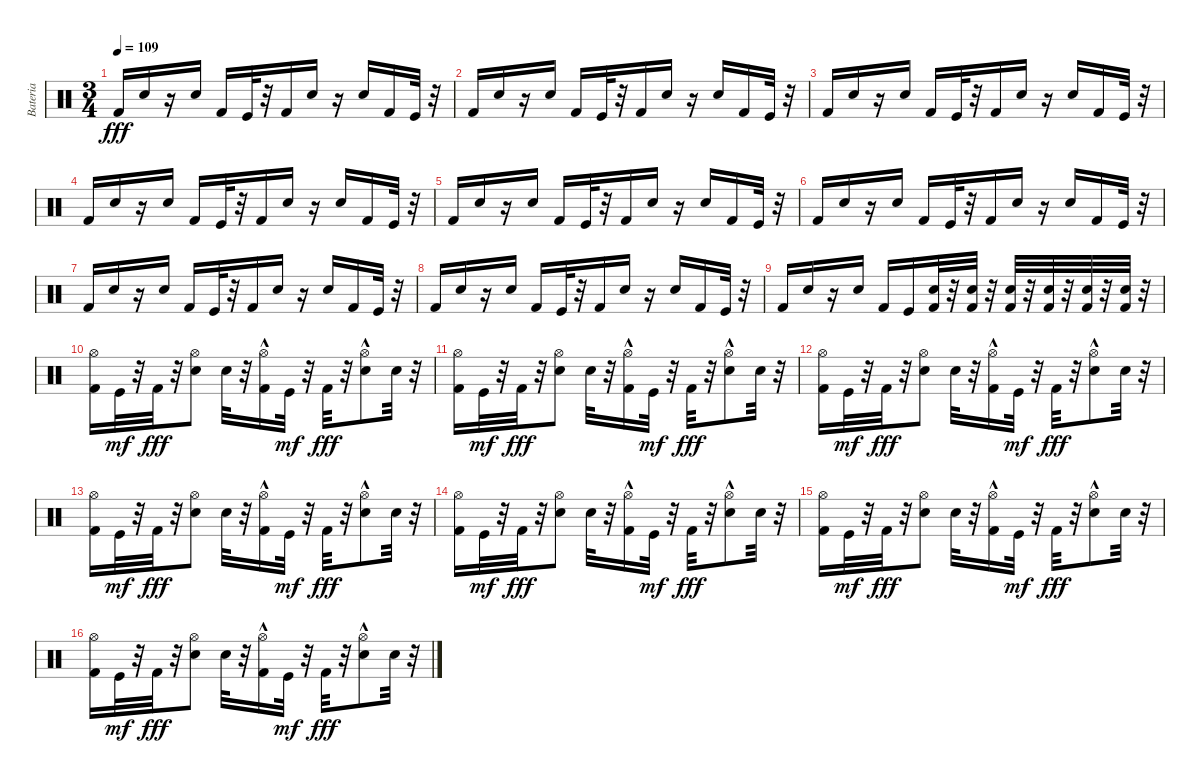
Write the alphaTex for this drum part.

\track ("Bateria" "Bateria") {instrument percussion}
\staff {score}
\articulation defaults
\ts (3 4)
\tempo 109
\clef neutral
\ks c "Kick (hit) 2".16{dy fff} "Electric Snare (hit)".16
r.16 "Electric Snare (hit)".16 "Kick (hit) 2".16 "Kick (hit)".32 r.32 "Kick (hit) 2".16 "Electric Snare (hit)".16 r.16 "Electric Snare (hit)".16 "Kick (hit) 2".16 "Kick (hit)".32 r.32 |
"Kick (hit) 2".16 "Electric Snare (hit)".16 r.16 "Electric Snare (hit)".16 "Kick (hit) 2".16 "Kick (hit)".32 r.32 "Kick (hit) 2".16 "Electric Snare (hit)".16 r.16 "Electric Snare (hit)".16 "Kick (hit) 2".16 "Kick (hit)".32 r.32 |
"Kick (hit) 2".16 "Electric Snare (hit)".16 r.16 "Electric Snare (hit)".16 "Kick (hit) 2".16 "Kick (hit)".32 r.32 "Kick (hit) 2".16 "Electric Snare (hit)".16 r.16 "Electric Snare (hit)".16 "Kick (hit) 2".16 "Kick (hit)".32 r.32 |
"Kick (hit) 2".16 "Electric Snare (hit)".16 r.16 "Electric Snare (hit)".16 "Kick (hit) 2".16 "Kick (hit)".32 r.32 "Kick (hit) 2".16 "Electric Snare (hit)".16 r.16 "Electric Snare (hit)".16 "Kick (hit) 2".16 "Kick (hit)".32 r.32 |
"Kick (hit) 2".16 "Electric Snare (hit)".16 r.16 "Electric Snare (hit)".16 "Kick (hit) 2".16 "Kick (hit)".32 r.32 "Kick (hit) 2".16 "Electric Snare (hit)".16 r.16 "Electric Snare (hit)".16 "Kick (hit) 2".16 "Kick (hit)".32 r.32 |
"Kick (hit) 2".16 "Electric Snare (hit)".16 r.16 "Electric Snare (hit)".16 "Kick (hit) 2".16 "Kick (hit)".32 r.32 "Kick (hit) 2".16 "Electric Snare (hit)".16 r.16 "Electric Snare (hit)".16 "Kick (hit) 2".16 "Kick (hit)".32 r.32 |
"Kick (hit) 2".16 "Electric Snare (hit)".16 r.16 "Electric Snare (hit)".16 "Kick (hit) 2".16 "Kick (hit)".32 r.32 "Kick (hit) 2".16 "Electric Snare (hit)".16 r.16 "Electric Snare (hit)".16 "Kick (hit) 2".16 "Kick (hit)".32 r.32 |
"Kick (hit) 2".16 "Electric Snare (hit)".16 r.16 "Electric Snare (hit)".16 "Kick (hit) 2".16 "Kick (hit)".32 r.32 "Kick (hit) 2".16 "Electric Snare (hit)".16 r.16 "Electric Snare (hit)".16 "Kick (hit) 2".16 "Kick (hit)".32 r.32 |
"Kick (hit) 2".16 "Electric Snare (hit)".16 r.16 "Electric Snare (hit)".16 "Kick (hit) 2".16 "Kick (hit)".16 ("Electric Snare (hit)" "Kick (hit) 2").32 r.32 ("Kick (hit) 2" "Electric Snare (hit)").32 r.32 ("Kick (hit) 2" "Electric Snare (hit)").32 r.32 ("Kick (hit) 2" "Electric Snare (hit)").32 r.32 ("Kick (hit) 2" "Electric Snare (hit)").32 r.32 ("Kick (hit) 2" "Electric Snare (hit)").32 r.32 |
("Kick (hit) 2" "Hi-Hat (open)").16 "Kick (hit)".32{dy mf} r.32 "Kick (hit) 2".32{dy fff} r.32 ("Electric Snare (hit)" "Hi-Hat (open)").8 "Electric Snare (hit)".32 r.32 ("Kick (hit) 2" "Hi-Hat (open)"{hac}).16 "Kick (hit)".32{dy mf} r.32 "Kick (hit) 2".32{dy fff} r.32 ("Electric Snare (hit)" "Hi-Hat (open)"{hac}).8 "Electric Snare (hit)".32 r.32 |
("Kick (hit) 2" "Hi-Hat (open)").16 "Kick (hit)".32{dy mf} r.32 "Kick (hit) 2".32{dy fff} r.32 ("Electric Snare (hit)" "Hi-Hat (open)").8 "Electric Snare (hit)".32 r.32 ("Kick (hit) 2" "Hi-Hat (open)"{hac}).16 "Kick (hit)".32{dy mf} r.32 "Kick (hit) 2".32{dy fff} r.32 ("Electric Snare (hit)" "Hi-Hat (open)"{hac}).8 "Electric Snare (hit)".32 r.32 |
("Kick (hit) 2" "Hi-Hat (open)").16 "Kick (hit)".32{dy mf} r.32 "Kick (hit) 2".32{dy fff} r.32 ("Electric Snare (hit)" "Hi-Hat (open)").8 "Electric Snare (hit)".32 r.32 ("Kick (hit) 2" "Hi-Hat (open)"{hac}).16 "Kick (hit)".32{dy mf} r.32 "Kick (hit) 2".32{dy fff} r.32 ("Electric Snare (hit)" "Hi-Hat (open)"{hac}).8 "Electric Snare (hit)".32 r.32 |
("Kick (hit) 2" "Hi-Hat (open)").16 "Kick (hit)".32{dy mf} r.32 "Kick (hit) 2".32{dy fff} r.32 ("Electric Snare (hit)" "Hi-Hat (open)").8 "Electric Snare (hit)".32 r.32 ("Kick (hit) 2" "Hi-Hat (open)"{hac}).16 "Kick (hit)".32{dy mf} r.32 "Kick (hit) 2".32{dy fff} r.32 ("Electric Snare (hit)" "Hi-Hat (open)"{hac}).8 "Electric Snare (hit)".32 r.32 |
("Kick (hit) 2" "Hi-Hat (open)").16 "Kick (hit)".32{dy mf} r.32 "Kick (hit) 2".32{dy fff} r.32 ("Electric Snare (hit)" "Hi-Hat (open)").8 "Electric Snare (hit)".32 r.32 ("Kick (hit) 2" "Hi-Hat (open)"{hac}).16 "Kick (hit)".32{dy mf} r.32 "Kick (hit) 2".32{dy fff} r.32 ("Electric Snare (hit)" "Hi-Hat (open)"{hac}).8 "Electric Snare (hit)".32 r.32 |
("Kick (hit) 2" "Hi-Hat (open)").16 "Kick (hit)".32{dy mf} r.32 "Kick (hit) 2".32{dy fff} r.32 ("Electric Snare (hit)" "Hi-Hat (open)").8 "Electric Snare (hit)".32 r.32 ("Kick (hit) 2" "Hi-Hat (open)"{hac}).16 "Kick (hit)".32{dy mf} r.32 "Kick (hit) 2".32{dy fff} r.32 ("Electric Snare (hit)" "Hi-Hat (open)"{hac}).8 "Electric Snare (hit)".32 r.32 |
("Kick (hit) 2" "Hi-Hat (open)").16 "Kick (hit)".32{dy mf} r.32 "Kick (hit) 2".32{dy fff} r.32 ("Electric Snare (hit)" "Hi-Hat (open)").8 "Electric Snare (hit)".32 r.32 ("Kick (hit) 2" "Hi-Hat (open)"{hac}).16 "Kick (hit)".32{dy mf} r.32 "Kick (hit) 2".32{dy fff} r.32 ("Electric Snare (hit)" "Hi-Hat (open)"{hac}).8 "Electric Snare (hit)".32 r.32
